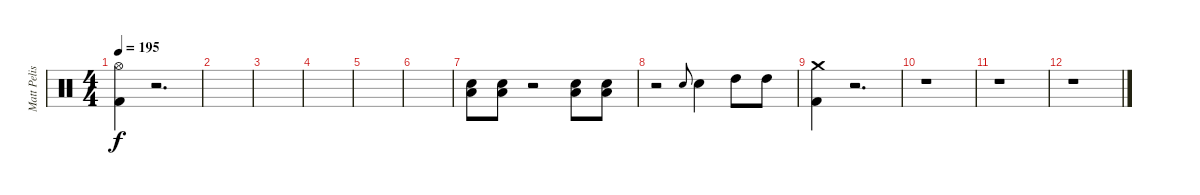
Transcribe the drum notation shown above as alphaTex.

\track ("Matt Pelissier" "Matt Pelis") {instrument percussion}
\staff {score}
\articulation defaults
\ts (4 4)
\tempo 195
\clef neutral
\ks c
("Hi-Hat (open)" "Kick (hit) 2").4{dy f} r.2{d} |
|
|
|
|
|
("Low Tom (hit)" "Electric Snare (hit)").8 ("Low Tom (hit)" "Electric Snare (hit)").8 r.2 ("Low Tom (hit)" "Electric Snare (hit)").8 ("Low Tom (hit)" "Electric Snare (hit)").8 |
r.2 "Electric Snare (hit)".8{gr onbeat} "Electric Snare (hit)".4 "High Tom (hit)".8 "High Tom (hit)".8 |
("Crash medium (hit)" "Kick (hit) 2").4 r.2{d} |
r.1 |
r.1 |
r.1
